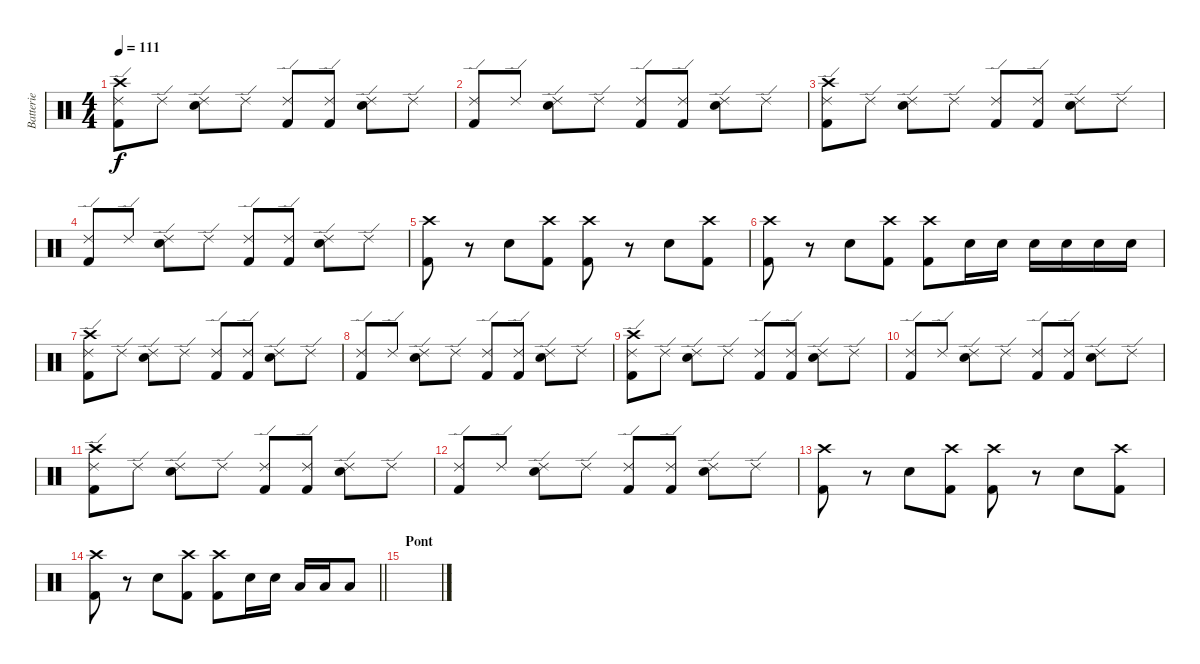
\track ("Batterie" "Batterie") {instrument percussion}
\staff {score}
\articulation defaults
\ts (4 4)
\tempo 111
\clef neutral
\ks c
("Kick (hit) 2" "Ride (edge) 2" "Crash high (hit)").8{dy f} "Ride (edge) 2".8 ("Snare (hit) 2" "Ride (edge) 2").8 "Ride (edge) 2".8 ("Kick (hit) 2" "Ride (edge) 2").8 ("Kick (hit) 2" "Ride (edge) 2").8 ("Snare (hit) 2" "Ride (edge) 2").8 "Ride (edge) 2".8 |
("Kick (hit) 2" "Ride (edge) 2").8 "Ride (edge) 2".8 ("Snare (hit) 2" "Ride (edge) 2").8 "Ride (edge) 2".8 ("Kick (hit) 2" "Ride (edge) 2").8 ("Kick (hit) 2" "Ride (edge) 2").8 ("Snare (hit) 2" "Ride (edge) 2").8 "Ride (edge) 2".8 |
("Kick (hit) 2" "Ride (edge) 2" "Crash high (hit)").8 "Ride (edge) 2".8 ("Snare (hit) 2" "Ride (edge) 2").8 "Ride (edge) 2".8 ("Kick (hit) 2" "Ride (edge) 2").8 ("Kick (hit) 2" "Ride (edge) 2").8 ("Snare (hit) 2" "Ride (edge) 2").8 "Ride (edge) 2".8 |
("Kick (hit) 2" "Ride (edge) 2").8 "Ride (edge) 2".8 ("Snare (hit) 2" "Ride (edge) 2").8 "Ride (edge) 2".8 ("Kick (hit) 2" "Ride (edge) 2").8 ("Kick (hit) 2" "Ride (edge) 2").8 ("Snare (hit) 2" "Ride (edge) 2").8 "Ride (edge) 2".8 |
("Kick (hit) 2" "Crash high (hit)").8 r.8 "Snare (hit) 2".8 ("Kick (hit) 2" "Crash high (hit)").8 ("Kick (hit) 2" "Crash high (hit)").8 r.8 "Snare (hit) 2".8 ("Kick (hit) 2" "Crash high (hit)").8 |
("Kick (hit) 2" "Crash high (hit)").8 r.8 "Snare (hit) 2".8 ("Kick (hit) 2" "Crash high (hit)").8 ("Kick (hit) 2" "Crash high (hit)").8 "Snare (hit) 2".16 "Snare (hit) 2".16 "Snare (hit) 2".16 "Snare (hit) 2".16 "Snare (hit) 2".16 "Snare (hit) 2".16 |
("Kick (hit) 2" "Ride (edge) 2" "Crash high (hit)").8 "Ride (edge) 2".8 ("Snare (hit) 2" "Ride (edge) 2").8 "Ride (edge) 2".8 ("Kick (hit) 2" "Ride (edge) 2").8 ("Kick (hit) 2" "Ride (edge) 2").8 ("Snare (hit) 2" "Ride (edge) 2").8 "Ride (edge) 2".8 |
("Kick (hit) 2" "Ride (edge) 2").8 "Ride (edge) 2".8 ("Snare (hit) 2" "Ride (edge) 2").8 "Ride (edge) 2".8 ("Kick (hit) 2" "Ride (edge) 2").8 ("Kick (hit) 2" "Ride (edge) 2").8 ("Snare (hit) 2" "Ride (edge) 2").8 "Ride (edge) 2".8 |
("Kick (hit) 2" "Ride (edge) 2" "Crash high (hit)").8 "Ride (edge) 2".8 ("Snare (hit) 2" "Ride (edge) 2").8 "Ride (edge) 2".8 ("Kick (hit) 2" "Ride (edge) 2").8 ("Kick (hit) 2" "Ride (edge) 2").8 ("Snare (hit) 2" "Ride (edge) 2").8 "Ride (edge) 2".8 |
("Kick (hit) 2" "Ride (edge) 2").8 "Ride (edge) 2".8 ("Snare (hit) 2" "Ride (edge) 2").8 "Ride (edge) 2".8 ("Kick (hit) 2" "Ride (edge) 2").8 ("Kick (hit) 2" "Ride (edge) 2").8 ("Snare (hit) 2" "Ride (edge) 2").8 "Ride (edge) 2".8 |
("Kick (hit) 2" "Ride (edge) 2" "Crash high (hit)").8 "Ride (edge) 2".8 ("Snare (hit) 2" "Ride (edge) 2").8 "Ride (edge) 2".8 ("Kick (hit) 2" "Ride (edge) 2").8 ("Kick (hit) 2" "Ride (edge) 2").8 ("Snare (hit) 2" "Ride (edge) 2").8 "Ride (edge) 2".8 |
("Kick (hit) 2" "Ride (edge) 2").8 "Ride (edge) 2".8 ("Snare (hit) 2" "Ride (edge) 2").8 "Ride (edge) 2".8 ("Kick (hit) 2" "Ride (edge) 2").8 ("Kick (hit) 2" "Ride (edge) 2").8 ("Snare (hit) 2" "Ride (edge) 2").8 "Ride (edge) 2".8 |
("Kick (hit) 2" "Crash high (hit)").8 r.8 "Snare (hit) 2".8 ("Kick (hit) 2" "Crash high (hit)").8 ("Kick (hit) 2" "Crash high (hit)").8 r.8 "Snare (hit) 2".8 ("Kick (hit) 2" "Crash high (hit)").8 |
\barLineRight lightlight
("Kick (hit) 2" "Crash high (hit)").8 r.8 "Snare (hit) 2".8 ("Kick (hit) 2" "Crash high (hit)").8 ("Kick (hit) 2" "Crash high (hit)").8 "Snare (hit) 2".16 "Snare (hit) 2".16 "Low Tom (hit)".16 "Low Tom (hit)".16 "Low Tom (hit)".8 |
\section ("" "Pont")
